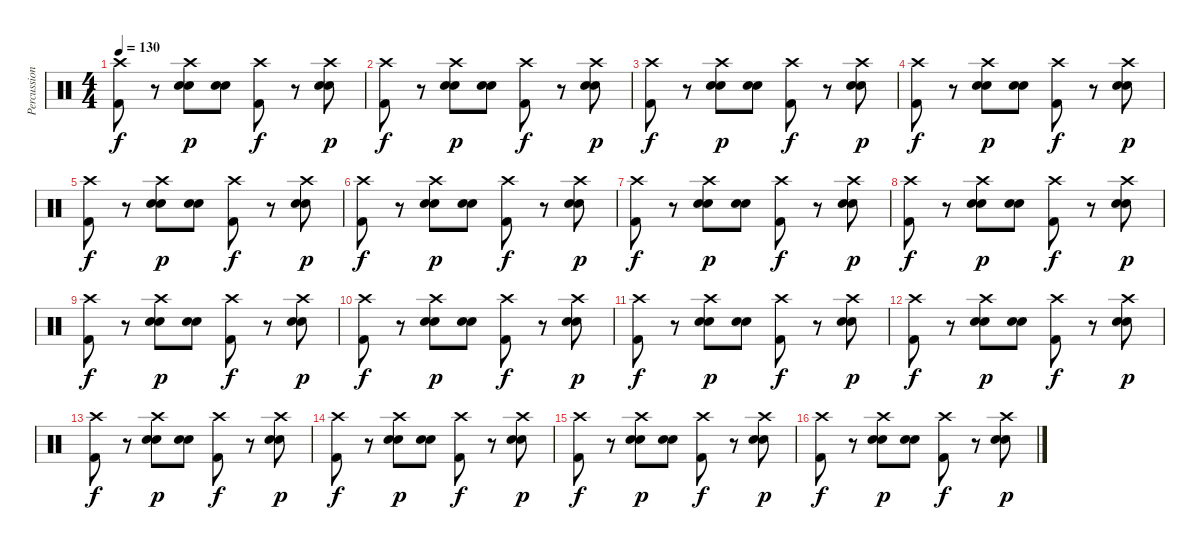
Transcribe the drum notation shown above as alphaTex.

\track ("Percussion" "Percussion") {instrument percussion}
\staff {score}
\articulation defaults
\ts (4 4)
\tempo 130
\clef neutral
\ks c
("Kick (hit) 2" "Crash high (hit)").8{dy f} r.8 ("Electric Snare (hit)" "Crash high (hit)" "Snare (hit) 2").8{dy p} ("Electric Snare (hit)" "Snare (hit) 2").8 ("Kick (hit) 2" "Crash high (hit)").8{dy f} r.8 ("Electric Snare (hit)" "Crash high (hit)" "Snare (hit) 2").8{dy p} |
("Kick (hit) 2" "Crash high (hit)").8{dy f} r.8 ("Electric Snare (hit)" "Crash high (hit)" "Snare (hit) 2").8{dy p} ("Electric Snare (hit)" "Snare (hit) 2").8 ("Kick (hit) 2" "Crash high (hit)").8{dy f} r.8 ("Electric Snare (hit)" "Crash high (hit)" "Snare (hit) 2").8{dy p} |
("Kick (hit) 2" "Crash high (hit)").8{dy f} r.8 ("Electric Snare (hit)" "Crash high (hit)" "Snare (hit) 2").8{dy p} ("Electric Snare (hit)" "Snare (hit) 2").8 ("Kick (hit) 2" "Crash high (hit)").8{dy f} r.8 ("Electric Snare (hit)" "Crash high (hit)" "Snare (hit) 2").8{dy p} |
("Kick (hit) 2" "Crash high (hit)").8{dy f} r.8 ("Electric Snare (hit)" "Crash high (hit)" "Snare (hit) 2").8{dy p} ("Electric Snare (hit)" "Snare (hit) 2").8 ("Kick (hit) 2" "Crash high (hit)").8{dy f} r.8 ("Electric Snare (hit)" "Crash high (hit)" "Snare (hit) 2").8{dy p} |
("Kick (hit) 2" "Crash high (hit)").8{dy f} r.8 ("Electric Snare (hit)" "Crash high (hit)" "Snare (hit) 2").8{dy p} ("Electric Snare (hit)" "Snare (hit) 2").8 ("Kick (hit) 2" "Crash high (hit)").8{dy f} r.8 ("Electric Snare (hit)" "Crash high (hit)" "Snare (hit) 2").8{dy p} |
("Kick (hit) 2" "Crash high (hit)").8{dy f} r.8 ("Electric Snare (hit)" "Crash high (hit)" "Snare (hit) 2").8{dy p} ("Electric Snare (hit)" "Snare (hit) 2").8 ("Kick (hit) 2" "Crash high (hit)").8{dy f} r.8 ("Electric Snare (hit)" "Crash high (hit)" "Snare (hit) 2").8{dy p} |
("Kick (hit) 2" "Crash high (hit)").8{dy f} r.8 ("Electric Snare (hit)" "Crash high (hit)" "Snare (hit) 2").8{dy p} ("Electric Snare (hit)" "Snare (hit) 2").8 ("Kick (hit) 2" "Crash high (hit)").8{dy f} r.8 ("Electric Snare (hit)" "Crash high (hit)" "Snare (hit) 2").8{dy p} |
("Kick (hit) 2" "Crash high (hit)").8{dy f} r.8 ("Electric Snare (hit)" "Crash high (hit)" "Snare (hit) 2").8{dy p} ("Electric Snare (hit)" "Snare (hit) 2").8 ("Kick (hit) 2" "Crash high (hit)").8{dy f} r.8 ("Electric Snare (hit)" "Crash high (hit)" "Snare (hit) 2").8{dy p} |
("Kick (hit) 2" "Crash high (hit)").8{dy f} r.8 ("Electric Snare (hit)" "Crash high (hit)" "Snare (hit) 2").8{dy p} ("Electric Snare (hit)" "Snare (hit) 2").8 ("Kick (hit) 2" "Crash high (hit)").8{dy f} r.8 ("Electric Snare (hit)" "Crash high (hit)" "Snare (hit) 2").8{dy p} |
("Kick (hit) 2" "Crash high (hit)").8{dy f} r.8 ("Electric Snare (hit)" "Crash high (hit)" "Snare (hit) 2").8{dy p} ("Electric Snare (hit)" "Snare (hit) 2").8 ("Kick (hit) 2" "Crash high (hit)").8{dy f} r.8 ("Electric Snare (hit)" "Crash high (hit)" "Snare (hit) 2").8{dy p} |
("Kick (hit) 2" "Crash high (hit)").8{dy f} r.8 ("Electric Snare (hit)" "Crash high (hit)" "Snare (hit) 2").8{dy p} ("Electric Snare (hit)" "Snare (hit) 2").8 ("Kick (hit) 2" "Crash high (hit)").8{dy f} r.8 ("Electric Snare (hit)" "Crash high (hit)" "Snare (hit) 2").8{dy p} |
("Kick (hit) 2" "Crash high (hit)").8{dy f} r.8 ("Electric Snare (hit)" "Crash high (hit)" "Snare (hit) 2").8{dy p} ("Electric Snare (hit)" "Snare (hit) 2").8 ("Kick (hit) 2" "Crash high (hit)").8{dy f} r.8 ("Electric Snare (hit)" "Crash high (hit)" "Snare (hit) 2").8{dy p} |
("Kick (hit) 2" "Crash high (hit)").8{dy f} r.8 ("Electric Snare (hit)" "Crash high (hit)" "Snare (hit) 2").8{dy p} ("Electric Snare (hit)" "Snare (hit) 2").8 ("Kick (hit) 2" "Crash high (hit)").8{dy f} r.8 ("Electric Snare (hit)" "Crash high (hit)" "Snare (hit) 2").8{dy p} |
("Kick (hit) 2" "Crash high (hit)").8{dy f} r.8 ("Electric Snare (hit)" "Crash high (hit)" "Snare (hit) 2").8{dy p} ("Electric Snare (hit)" "Snare (hit) 2").8 ("Kick (hit) 2" "Crash high (hit)").8{dy f} r.8 ("Electric Snare (hit)" "Crash high (hit)" "Snare (hit) 2").8{dy p} |
("Kick (hit) 2" "Crash high (hit)").8{dy f} r.8 ("Electric Snare (hit)" "Crash high (hit)" "Snare (hit) 2").8{dy p} ("Electric Snare (hit)" "Snare (hit) 2").8 ("Kick (hit) 2" "Crash high (hit)").8{dy f} r.8 ("Electric Snare (hit)" "Crash high (hit)" "Snare (hit) 2").8{dy p} |
("Kick (hit) 2" "Crash high (hit)").8{dy f} r.8 ("Electric Snare (hit)" "Crash high (hit)" "Snare (hit) 2").8{dy p} ("Electric Snare (hit)" "Snare (hit) 2").8 ("Kick (hit) 2" "Crash high (hit)").8{dy f} r.8 ("Electric Snare (hit)" "Crash high (hit)" "Snare (hit) 2").8{dy p}
